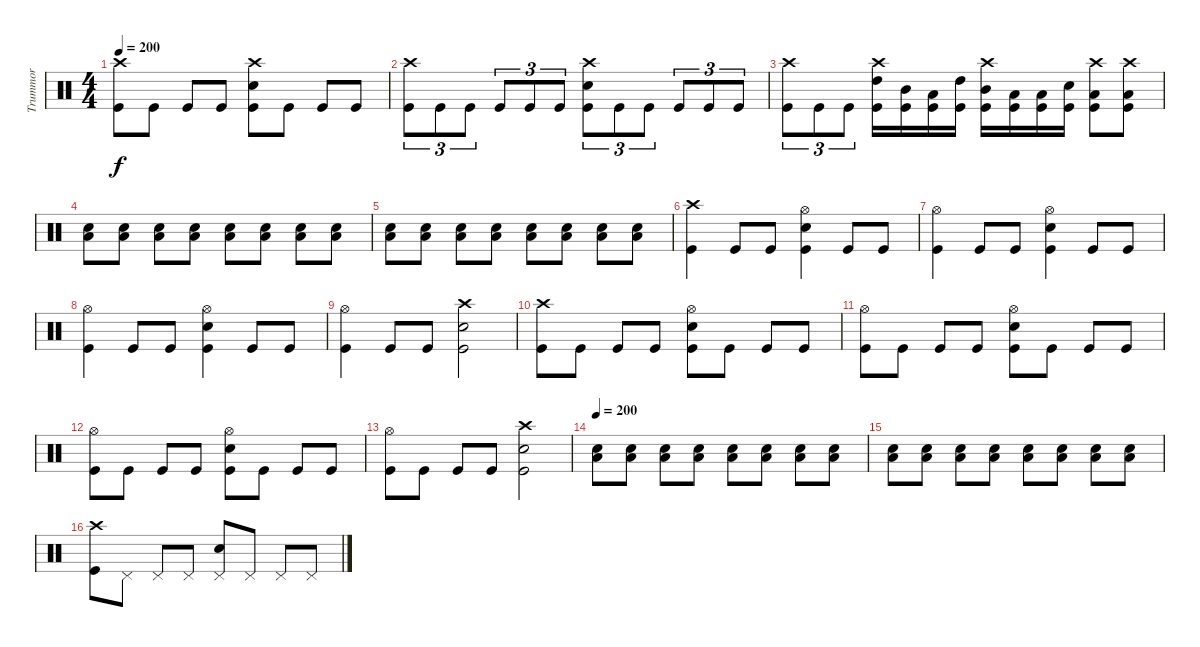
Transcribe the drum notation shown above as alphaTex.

\track ("Trummor" "Trummor") {instrument percussion}
\staff {score}
\articulation defaults
\ts (4 4)
\tempo 200
\clef neutral
\ks c
("Crash high (hit)" "Kick (hit)").8{dy f} "Kick (hit)".8 "Kick (hit)".8 "Kick (hit)".8 ("Crash high (hit)" "Electric Snare (hit)" "Kick (hit)").8 "Kick (hit)".8 "Kick (hit)".8 "Kick (hit)".8 |
("Crash high (hit)" "Kick (hit)").8{tu (3 2)} "Kick (hit)".8{tu (3 2)} "Kick (hit)".8{tu (3 2)} "Kick (hit)".8{tu (3 2)} "Kick (hit)".8{tu (3 2)} "Kick (hit)".8{tu (3 2)} ("Crash high (hit)" "Electric Snare (hit)" "Kick (hit)").8{tu (3 2)} "Kick (hit)".8{tu (3 2)} "Kick (hit)".8{tu (3 2)} "Kick (hit)".8{tu (3 2)} "Kick (hit)".8{tu (3 2)} "Kick (hit)".8{tu (3 2)} |
("Crash high (hit)" "Kick (hit)").8{tu (3 2)} "Kick (hit)".8{tu (3 2)} "Kick (hit)".8{tu (3 2)} ("Crash high (hit)" "High Tom (hit)" "Kick (hit)").16 ("Mid Tom (hit)" "Kick (hit)").16 ("Low Tom (hit)" "Kick (hit)").16 ("High Tom (hit)" "Kick (hit)").16 ("Crash high (hit)" "Mid Tom (hit)" "Kick (hit)").16 ("Low Tom (hit)" "Kick (hit)").16 ("Low Floor Tom (hit)" "Kick (hit)").16 ("Electric Snare (hit)" "Kick (hit)").16 ("Crash high (hit)" "Low Floor Tom (hit)" "Kick (hit)").8 ("Crash high (hit)" "Low Floor Tom (hit)" "Kick (hit)").8 |
("Low Floor Tom (hit)" "Electric Snare (hit)").8 ("Low Floor Tom (hit)" "Electric Snare (hit)").8 ("Low Floor Tom (hit)" "Electric Snare (hit)").8 ("Low Floor Tom (hit)" "Electric Snare (hit)").8 ("Low Floor Tom (hit)" "Electric Snare (hit)").8 ("Low Floor Tom (hit)" "Electric Snare (hit)").8 ("Low Floor Tom (hit)" "Electric Snare (hit)").8 ("Low Floor Tom (hit)" "Electric Snare (hit)").8 |
("Low Floor Tom (hit)" "Electric Snare (hit)").8 ("Low Floor Tom (hit)" "Electric Snare (hit)").8 ("Low Floor Tom (hit)" "Electric Snare (hit)").8 ("Low Floor Tom (hit)" "Electric Snare (hit)").8 ("Low Floor Tom (hit)" "Electric Snare (hit)").8 ("Low Floor Tom (hit)" "Electric Snare (hit)").8 ("Low Floor Tom (hit)" "Electric Snare (hit)").8 ("Low Floor Tom (hit)" "Electric Snare (hit)").8 |
("Crash high (hit)" "Kick (hit)").4 "Kick (hit)".8 "Kick (hit)".8 ("Hi-Hat (open)" "Electric Snare (hit)" "Kick (hit)").4 "Kick (hit)".8 "Kick (hit)".8 |
("Hi-Hat (open)" "Kick (hit)").4 "Kick (hit)".8 "Kick (hit)".8 ("Hi-Hat (open)" "Electric Snare (hit)" "Kick (hit)").4 "Kick (hit)".8 "Kick (hit)".8 |
("Hi-Hat (open)" "Kick (hit)").4 "Kick (hit)".8 "Kick (hit)".8 ("Hi-Hat (open)" "Electric Snare (hit)" "Kick (hit)").4 "Kick (hit)".8 "Kick (hit)".8 |
("Hi-Hat (open)" "Kick (hit)").4 "Kick (hit)".8 "Kick (hit)".8 ("Crash high (hit)" "Electric Snare (hit)" "Kick (hit)").2 |
("Crash high (hit)" "Kick (hit)").8 "Kick (hit)".8 "Kick (hit)".8 "Kick (hit)".8 ("Hi-Hat (open)" "Electric Snare (hit)" "Kick (hit)").8 "Kick (hit)".8 "Kick (hit)".8 "Kick (hit)".8 |
("Hi-Hat (open)" "Kick (hit)").8 "Kick (hit)".8 "Kick (hit)".8 "Kick (hit)".8 ("Hi-Hat (open)" "Electric Snare (hit)" "Kick (hit)").8 "Kick (hit)".8 "Kick (hit)".8 "Kick (hit)".8 |
("Hi-Hat (open)" "Kick (hit)").8 "Kick (hit)".8 "Kick (hit)".8 "Kick (hit)".8 ("Hi-Hat (open)" "Electric Snare (hit)" "Kick (hit)").8 "Kick (hit)".8 "Kick (hit)".8 "Kick (hit)".8 |
("Hi-Hat (open)" "Kick (hit)").8 "Kick (hit)".8 "Kick (hit)".8 "Kick (hit)".8 ("Crash high (hit)" "Electric Snare (hit)" "Kick (hit)").2 |
\tempo 200
("Low Floor Tom (hit)" "Electric Snare (hit)").8 ("Low Floor Tom (hit)" "Electric Snare (hit)").8 ("Low Floor Tom (hit)" "Electric Snare (hit)").8 ("Low Floor Tom (hit)" "Electric Snare (hit)").8 ("Low Floor Tom (hit)" "Electric Snare (hit)").8 ("Low Floor Tom (hit)" "Electric Snare (hit)").8 ("Low Floor Tom (hit)" "Electric Snare (hit)").8 ("Low Floor Tom (hit)" "Electric Snare (hit)").8 |
("Low Floor Tom (hit)" "Electric Snare (hit)").8 ("Low Floor Tom (hit)" "Electric Snare (hit)").8 ("Low Floor Tom (hit)" "Electric Snare (hit)").8 ("Low Floor Tom (hit)" "Electric Snare (hit)").8 ("Low Floor Tom (hit)" "Electric Snare (hit)").8 ("Low Floor Tom (hit)" "Electric Snare (hit)").8 ("Low Floor Tom (hit)" "Electric Snare (hit)").8 ("Low Floor Tom (hit)" "Electric Snare (hit)").8 |
("Crash high (hit)" "Kick (hit)").8 "Pedal Hi-Hat (hit)".8 "Pedal Hi-Hat (hit)".8 "Pedal Hi-Hat (hit)".8 ("Pedal Hi-Hat (hit)" "Electric Snare (hit)").8 "Pedal Hi-Hat (hit)".8 "Pedal Hi-Hat (hit)".8 "Pedal Hi-Hat (hit)".8
